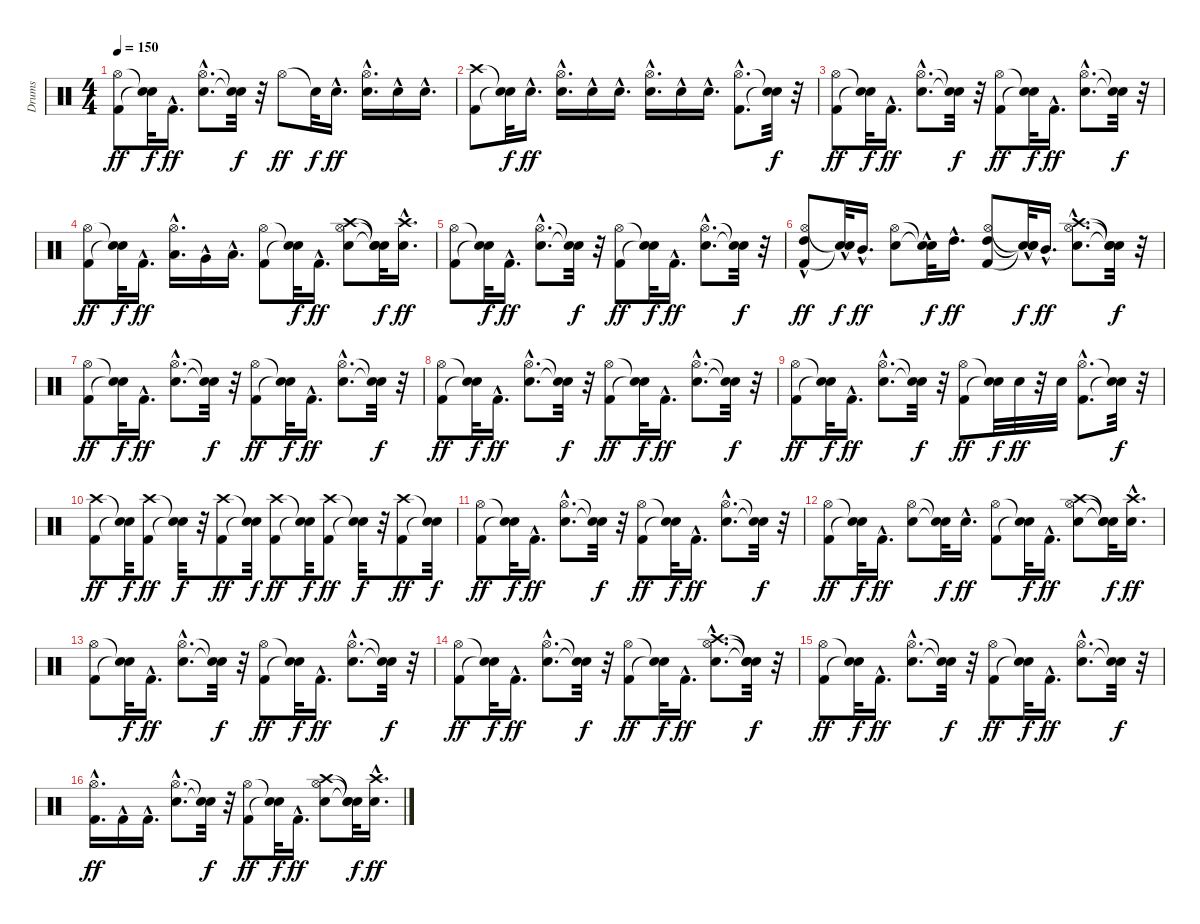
\track ("Drums" "Drums") {instrument percussion}
\staff {score}
\articulation defaults
\ts (4 4)
\tempo 150
\clef neutral
\ks c
("Kick (hit) 2" "Hi-Hat (open)").8{dy ff} ("Snare (hit)"{t} "Snare (hit)"{t}).32{dy f} "Kick (hit) 2"{hac}.16{d dy ff} ("Snare (hit) 2"{hac} "Hi-Hat (open)"{hac}).8{d} ("Snare (hit)"{t} "Snare (hit)"{t}).32{dy f} r.32 "Hi-Hat (open)".8{dy ff} "Snare (hit)"{t}.32{dy f} "Snare (hit) 2"{hac}.16{d dy ff} ("Snare (hit) 2"{hac} "Hi-Hat (open)"{hac}).16{d} "Snare (hit) 2"{hac}.16 "Snare (hit) 2"{hac}.16{d} |
("Kick (hit) 2" "Crash high (hit)").8 ("Snare (hit)"{t} "Snare (hit)"{t}).32{dy f} "Snare (hit) 2"{hac}.16{d dy ff} ("Snare (hit) 2"{hac} "Hi-Hat (open)"{hac}).16{d} "Snare (hit) 2"{hac}.16 "Snare (hit) 2"{hac}.16{d} ("Snare (hit) 2"{hac} "Hi-Hat (open)"{hac}).16{d} "Snare (hit) 2"{hac}.16 "Snare (hit) 2"{hac}.16{d} ("Kick (hit) 2"{hac} "Hi-Hat (open)"{hac}).8{d} ("Snare (hit)"{t} "Snare (hit)"{t}).32{dy f} r.32 |
("Kick (hit) 2" "Hi-Hat (open)").8{dy ff} ("Snare (hit)"{t} "Snare (hit)"{t}).32{dy f} "Kick (hit) 2"{hac}.16{d dy ff} ("Snare (hit) 2"{hac} "Hi-Hat (open)"{hac}).8{d} ("Snare (hit)"{t} "Snare (hit)"{t}).32{dy f} r.32 ("Kick (hit) 2" "Hi-Hat (open)").8{dy ff} ("Snare (hit)"{t} "Snare (hit)"{t}).32{dy f} "Kick (hit) 2"{hac}.16{d dy ff} ("Snare (hit) 2"{hac} "Hi-Hat (open)"{hac}).8{d} ("Snare (hit)"{t} "Snare (hit)"{t}).32{dy f} r.32 |
("Kick (hit) 2" "Hi-Hat (open)").8{dy ff} ("Snare (hit)"{t} "Snare (hit)"{t}).32{dy f} "Kick (hit) 2"{hac}.16{d dy ff} ("Low Tom (hit)"{hac} "Hi-Hat (open)"{hac}).16{d} "Very Low Tom (hit)"{hac}.16 "Low Floor Tom (hit)"{hac}.16{d} ("Kick (hit) 2" "Hi-Hat (open)").8 ("Snare (hit)"{t} "Snare (hit)"{t}).32{dy f} "Kick (hit) 2"{hac}.16{d dy ff} ("Snare (hit) 2" "Hi-Hat (open)" "Crash high (hit)").8 ("Snare (hit)"{t} "Snare (hit)"{t} "Snare (hit)"{t}).32{dy f} ("Snare (hit) 2"{hac} "Crash high (hit)"{hac}).16{d dy ff} |
("Kick (hit) 2" "Hi-Hat (open)").8 ("Snare (hit)"{t} "Snare (hit)"{t}).32{dy f} "Kick (hit) 2"{hac}.16{d dy ff} ("Snare (hit) 2"{hac} "Hi-Hat (open)"{hac}).8{d} ("Snare (hit)"{t} "Snare (hit)"{t}).32{dy f} r.32 ("Kick (hit) 2" "Hi-Hat (open)").8{dy ff} ("Snare (hit)"{t} "Snare (hit)"{t}).32{dy f} "Kick (hit) 2"{hac}.16{d dy ff} ("Snare (hit) 2"{hac} "Hi-Hat (open)"{hac}).8{d} ("Snare (hit)"{t} "Snare (hit)"{t}).32{dy f} r.32 |
("Kick (hit) 2" "Hi-Hat (open)" "High Tom (hit)"{hac}).8{dy ff} ("Snare (hit)"{hac t} "Snare (hit)"{hac t}).32{dy f} "Mid Tom (hit)"{hac}.16{d dy ff} ("Snare (hit) 2" "Hi-Hat (open)").8 ("Snare (hit)"{hac t} "Snare (hit)"{t}).32{dy f} "High Tom (hit)"{hac}.16{d dy ff} ("Kick (hit) 2" "Hi-Hat (open)" "High Tom (hit)").8 ("Snare (hit)"{hac t} "Snare (hit)"{t} "Snare (hit)"{t}).32{dy f} "Mid Tom (hit)"{hac}.16{d dy ff} ("Snare (hit) 2"{hac} "Hi-Hat (open)"{hac} "Crash high (hit)"{hac}).8{d} ("Snare (hit)"{t} "Snare (hit)"{t} "Snare (hit)"{t}).32{dy f} r.32 |
("Kick (hit) 2" "Hi-Hat (open)").8{dy ff} ("Snare (hit)"{t} "Snare (hit)"{t}).32{dy f} "Kick (hit) 2"{hac}.16{d dy ff} ("Snare (hit) 2"{hac} "Hi-Hat (open)"{hac}).8{d} ("Snare (hit)"{t} "Snare (hit)"{t}).32{dy f} r.32 ("Kick (hit) 2" "Hi-Hat (open)").8{dy ff} ("Snare (hit)"{t} "Snare (hit)"{t}).32{dy f} "Kick (hit) 2"{hac}.16{d dy ff} ("Snare (hit) 2"{hac} "Hi-Hat (open)"{hac}).8{d} ("Snare (hit)"{t} "Snare (hit)"{t}).32{dy f} r.32 |
("Kick (hit) 2" "Hi-Hat (open)").8{dy ff} ("Snare (hit)"{t} "Snare (hit)"{t}).32{dy f} "Kick (hit) 2"{hac}.16{d dy ff} ("Snare (hit) 2"{hac} "Hi-Hat (open)"{hac}).8{d} ("Snare (hit)"{t} "Snare (hit)"{t}).32{dy f} r.32 ("Kick (hit) 2" "Hi-Hat (open)").8{dy ff} ("Snare (hit)"{t} "Snare (hit)"{t}).32{dy f} "Kick (hit) 2"{hac}.16{d dy ff} ("Snare (hit) 2"{hac} "Hi-Hat (open)"{hac}).8{d} ("Snare (hit)"{t} "Snare (hit)"{t}).32{dy f} r.32 |
("Kick (hit) 2" "Hi-Hat (open)").8{dy ff} ("Snare (hit)"{t} "Snare (hit)"{t}).32{dy f} "Kick (hit) 2"{hac}.16{d dy ff} ("Snare (hit) 2"{hac} "Hi-Hat (open)"{hac}).8{d} ("Snare (hit)"{t} "Snare (hit)"{t}).32{dy f} r.32 ("Kick (hit) 2" "Hi-Hat (open)").8{dy ff} ("Snare (hit)"{t} "Snare (hit)"{t}).32{dy f} "Snare (hit) 2".32{dy ff} r.32 "Snare (hit) 2".32 ("Kick (hit) 2"{hac} "Hi-Hat (open)"{hac}).8{d} ("Snare (hit)"{t} "Snare (hit)"{t}).32{dy f} r.32 |
("Kick (hit) 2" "Crash high (hit)").8{dy ff} ("Snare (hit)"{t} "Snare (hit)"{t}).32{dy f} ("Kick (hit) 2" "Crash high (hit)").8{dy ff} ("Snare (hit)"{t} "Snare (hit)"{t}).32{dy f} r.32 ("Kick (hit) 2" "Crash high (hit)").8{dy ff} ("Snare (hit)"{t} "Snare (hit)"{t}).32{dy f} ("Kick (hit) 2" "Crash high (hit)").8{dy ff} ("Snare (hit)"{t} "Snare (hit)"{t}).32{dy f} ("Kick (hit) 2" "Crash high (hit)").8{dy ff} ("Snare (hit)"{t} "Snare (hit)"{t}).32{dy f} r.32 ("Kick (hit) 2" "Crash high (hit)").8{dy ff} ("Snare (hit)"{t} "Snare (hit)"{t}).32{dy f} |
("Kick (hit) 2" "Hi-Hat (open)").8{dy ff} ("Snare (hit)"{t} "Snare (hit)"{t}).32{dy f} "Kick (hit) 2"{hac}.16{d dy ff} ("Snare (hit) 2"{hac} "Hi-Hat (open)"{hac}).8{d} ("Snare (hit)"{t} "Snare (hit)"{t}).32{dy f} r.32 ("Kick (hit) 2" "Hi-Hat (open)").8{dy ff} ("Snare (hit)"{t} "Snare (hit)"{t}).32{dy f} "Kick (hit) 2"{hac}.16{d dy ff} ("Snare (hit) 2"{hac} "Hi-Hat (open)"{hac}).8{d} ("Snare (hit)"{t} "Snare (hit)"{t}).32{dy f} r.32 |
("Kick (hit) 2" "Hi-Hat (open)").8{dy ff} ("Snare (hit)"{t} "Snare (hit)"{t}).32{dy f} "Kick (hit) 2"{hac}.16{d dy ff} ("Snare (hit) 2" "Hi-Hat (open)").8 ("Snare (hit)"{t} "Snare (hit)"{t}).32{dy f} "Snare (hit) 2"{hac}.16{d dy ff} ("Kick (hit) 2" "Hi-Hat (open)").8 ("Snare (hit)"{t} "Snare (hit)"{t}).32{dy f} "Kick (hit) 2"{hac}.16{d dy ff} ("Snare (hit) 2" "Hi-Hat (open)" "Crash high (hit)").8 ("Snare (hit)"{t} "Snare (hit)"{t} "Snare (hit)"{t}).32{dy f} ("Snare (hit) 2"{hac} "Crash high (hit)"{hac}).16{d dy ff} |
("Kick (hit) 2" "Hi-Hat (open)").8 ("Snare (hit)"{t} "Snare (hit)"{t}).32{dy f} "Kick (hit) 2"{hac}.16{d dy ff} ("Snare (hit) 2"{hac} "Hi-Hat (open)"{hac}).8{d} ("Snare (hit)"{t} "Snare (hit)"{t}).32{dy f} r.32 ("Kick (hit) 2" "Hi-Hat (open)").8{dy ff} ("Snare (hit)"{t} "Snare (hit)"{t}).32{dy f} "Kick (hit) 2"{hac}.16{d dy ff} ("Snare (hit) 2"{hac} "Hi-Hat (open)"{hac}).8{d} ("Snare (hit)"{t} "Snare (hit)"{t}).32{dy f} r.32 |
("Kick (hit) 2" "Hi-Hat (open)").8{dy ff} ("Snare (hit)"{t} "Snare (hit)"{t}).32{dy f} "Kick (hit) 2"{hac}.16{d dy ff} ("Snare (hit) 2"{hac} "Hi-Hat (open)"{hac}).8{d} ("Snare (hit)"{t} "Snare (hit)"{t}).32{dy f} r.32 ("Kick (hit) 2" "Hi-Hat (open)").8{dy ff} ("Snare (hit)"{t} "Snare (hit)"{t}).32{dy f} "Kick (hit) 2"{hac}.16{d dy ff} ("Snare (hit) 2"{hac} "Hi-Hat (open)"{hac} "Crash high (hit)"{hac}).8{d} ("Snare (hit)"{t} "Snare (hit)"{t} "Snare (hit)"{t}).32{dy f} r.32 |
("Kick (hit) 2" "Hi-Hat (open)").8{dy ff} ("Snare (hit)"{t} "Snare (hit)"{t}).32{dy f} "Kick (hit) 2"{hac}.16{d dy ff} ("Snare (hit) 2"{hac} "Hi-Hat (open)"{hac}).8{d} ("Snare (hit)"{t} "Snare (hit)"{t}).32{dy f} r.32 ("Kick (hit) 2" "Hi-Hat (open)").8{dy ff} ("Snare (hit)"{t} "Snare (hit)"{t}).32{dy f} "Kick (hit) 2"{hac}.16{d dy ff} ("Snare (hit) 2"{hac} "Hi-Hat (open)"{hac}).8{d} ("Snare (hit)"{t} "Snare (hit)"{t}).32{dy f} r.32 |
("Kick (hit) 2"{hac} "Hi-Hat (open)"{hac}).16{d dy ff} "Kick (hit) 2"{hac}.16 "Kick (hit) 2"{hac}.16{d} ("Snare (hit) 2"{hac} "Hi-Hat (open)"{hac}).8{d} ("Snare (hit)"{t} "Snare (hit)"{t}).32{dy f} r.32 ("Kick (hit) 2" "Hi-Hat (open)").8{dy ff} ("Snare (hit)"{t} "Snare (hit)"{t}).32{dy f} "Kick (hit) 2"{hac}.16{d dy ff} ("Snare (hit) 2" "Hi-Hat (open)" "Crash high (hit)").8 ("Snare (hit)"{t} "Snare (hit)"{t} "Snare (hit)"{t}).32{dy f} ("Snare (hit) 2"{hac} "Crash high (hit)"{hac}).16{d dy ff}
